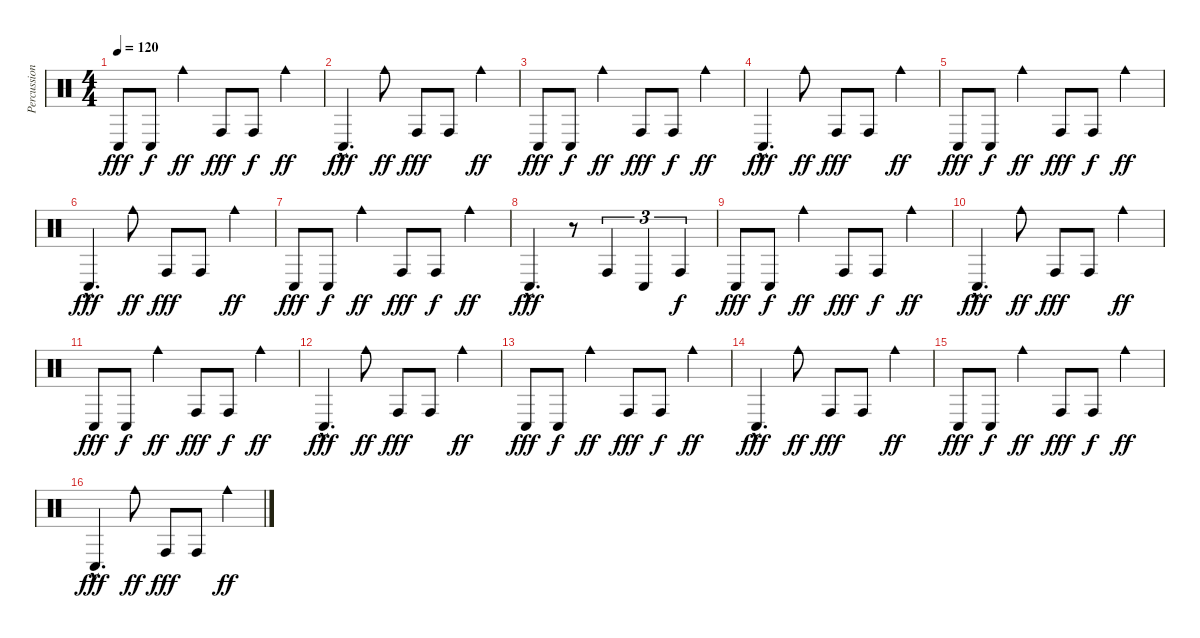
\track ("Percussions" "Percussion") {instrument percussion}
\staff {score}
\articulation defaults
\ts (4 4)
\tempo 120
\clef neutral
\ks c "Conga low (hit)".8{dy fff} "Conga low (hit)".8{dy f} "Cowbell medium (hit)".4{dy ff} "Conga high (hit)".8{dy fff} "Conga high (hit)".8{dy f} "Cowbell medium (hit)".4{dy ff}
|
"Conga low (hit)"{hac}.4{d dy fff} "Cowbell medium (hit)".8{dy ff} "Conga high (hit)".8{dy fff} "Conga high (hit)".8 "Cowbell medium (hit)".4{dy ff} |
"Conga low (hit)".8{dy fff} "Conga low (hit)".8{dy f} "Cowbell medium (hit)".4{dy ff} "Conga high (hit)".8{dy fff} "Conga high (hit)".8{dy f} "Cowbell medium (hit)".4{dy ff} |
"Conga low (hit)"{hac}.4{d dy fff} "Cowbell medium (hit)".8{dy ff} "Conga high (hit)".8{dy fff} "Conga high (hit)".8 "Cowbell medium (hit)".4{dy ff} |
"Conga low (hit)".8{dy fff} "Conga low (hit)".8{dy f} "Cowbell medium (hit)".4{dy ff} "Conga high (hit)".8{dy fff} "Conga high (hit)".8{dy f} "Cowbell medium (hit)".4{dy ff} |
"Conga low (hit)"{hac}.4{d dy fff} "Cowbell medium (hit)".8{dy ff} "Conga high (hit)".8{dy fff} "Conga high (hit)".8 "Cowbell medium (hit)".4{dy ff} |
"Conga low (hit)".8{dy fff} "Conga low (hit)".8{dy f} "Cowbell medium (hit)".4{dy ff} "Conga high (hit)".8{dy fff} "Conga high (hit)".8{dy f} "Cowbell medium (hit)".4{dy ff} |
"Conga low (hit)"{hac}.4{d dy fff} r.8 "Conga high (hit)".4{tu (3 2)} "Conga low (hit)".4{tu (3 2)} "Conga high (hit)".4{tu (3 2) dy f} |
"Conga low (hit)".8{dy fff} "Conga low (hit)".8{dy f} "Cowbell medium (hit)".4{dy ff} "Conga high (hit)".8{dy fff} "Conga high (hit)".8{dy f} "Cowbell medium (hit)".4{dy ff} |
"Conga low (hit)"{hac}.4{d dy fff} "Cowbell medium (hit)".8{dy ff} "Conga high (hit)".8{dy fff} "Conga high (hit)".8 "Cowbell medium (hit)".4{dy ff} |
"Conga low (hit)".8{dy fff} "Conga low (hit)".8{dy f} "Cowbell medium (hit)".4{dy ff} "Conga high (hit)".8{dy fff} "Conga high (hit)".8{dy f} "Cowbell medium (hit)".4{dy ff} |
"Conga low (hit)"{hac}.4{d dy fff} "Cowbell medium (hit)".8{dy ff} "Conga high (hit)".8{dy fff} "Conga high (hit)".8 "Cowbell medium (hit)".4{dy ff} |
"Conga low (hit)".8{dy fff} "Conga low (hit)".8{dy f} "Cowbell medium (hit)".4{dy ff} "Conga high (hit)".8{dy fff} "Conga high (hit)".8{dy f} "Cowbell medium (hit)".4{dy ff} |
"Conga low (hit)"{hac}.4{d dy fff} "Cowbell medium (hit)".8{dy ff} "Conga high (hit)".8{dy fff} "Conga high (hit)".8 "Cowbell medium (hit)".4{dy ff} |
"Conga low (hit)".8{dy fff} "Conga low (hit)".8{dy f} "Cowbell medium (hit)".4{dy ff} "Conga high (hit)".8{dy fff} "Conga high (hit)".8{dy f} "Cowbell medium (hit)".4{dy ff} |
"Conga low (hit)"{hac}.4{d dy fff} "Cowbell medium (hit)".8{dy ff} "Conga high (hit)".8{dy fff} "Conga high (hit)".8 "Cowbell medium (hit)".4{dy ff}
